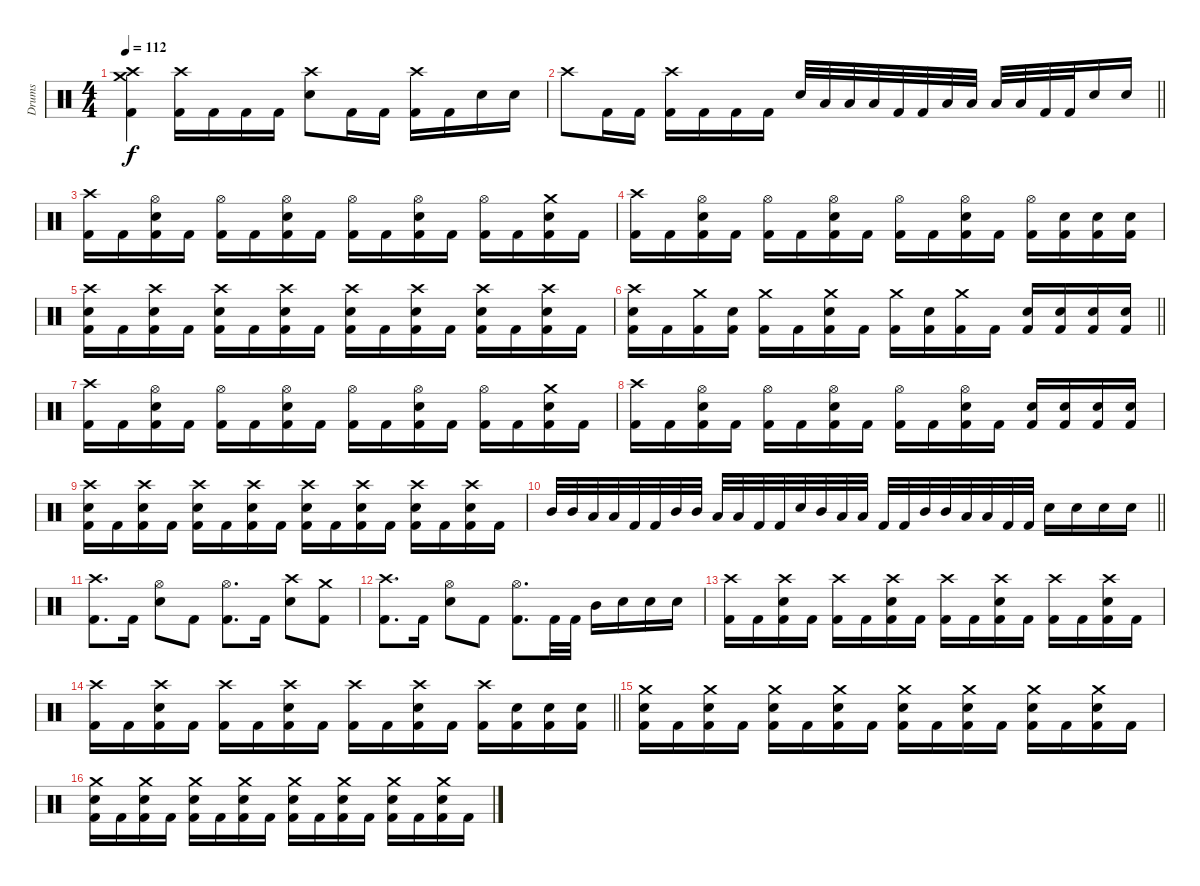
\track ("Drums" "Drums") {instrument percussion}
\staff {score}
\articulation defaults
\ts (4 4)
\tempo 112
\clef neutral
\ks c
("Crash high (hit)" "Crash medium (hit)" "Kick (hit) 2").4{dy f} ("Crash high (hit)" "Kick (hit) 2").16 "Kick (hit) 2".16 "Kick (hit) 2".16 "Kick (hit) 2".16 ("Crash high (hit)" "Electric Snare (hit)").8 "Kick (hit) 2".16 "Kick (hit) 2".16 ("Crash high (hit)" "Kick (hit) 2").16 "Kick (hit) 2".16 "Electric Snare (hit)".16 "Electric Snare (hit)".16 |
\barLineRight lightlight "Crash high (hit)".8 "Kick (hit) 2".16 "Kick (hit) 2".16
("Crash high (hit)" "Kick (hit) 2").16 "Kick (hit) 2".16 "Kick (hit) 2".16 "Kick (hit) 2".16 "Electric Snare (hit)".32 "Low Tom (hit)".32 "Low Tom (hit)".32 "Low Tom (hit)".32 "Kick (hit) 2".32 "Kick (hit) 2".32 "Low Tom (hit)".32 "Low Tom (hit)".32 "Low Tom (hit)".32 "Low Tom (hit)".32 "Kick (hit) 2".32 "Kick (hit) 2".32 "Electric Snare (hit)".16 "Electric Snare (hit)".16 |
("Crash high (hit)" "Kick (hit) 2").16 "Kick (hit) 2".16 ("Hi-Hat (open)" "Electric Snare (hit)" "Kick (hit) 2").16 "Kick (hit) 2".16 ("Hi-Hat (open)" "Kick (hit) 2").16 "Kick (hit) 2".16 ("Hi-Hat (open)" "Electric Snare (hit)" "Kick (hit) 2").16 "Kick (hit) 2".16 ("Hi-Hat (open)" "Kick (hit) 2").16 "Kick (hit) 2".16 ("Hi-Hat (open)" "Electric Snare (hit)" "Kick (hit) 2").16 "Kick (hit) 2".16 ("Hi-Hat (open)" "Kick (hit) 2").16 "Kick (hit) 2".16 ("Crash medium (hit)" "Electric Snare (hit)" "Kick (hit) 2").16 "Kick (hit) 2".16 |
("Crash high (hit)" "Kick (hit) 2").16 "Kick (hit) 2".16 ("Hi-Hat (open)" "Electric Snare (hit)" "Kick (hit) 2").16 "Kick (hit) 2".16 ("Hi-Hat (open)" "Kick (hit) 2").16 "Kick (hit) 2".16 ("Hi-Hat (open)" "Electric Snare (hit)" "Kick (hit) 2").16 "Kick (hit) 2".16 ("Hi-Hat (open)" "Kick (hit) 2").16 "Kick (hit) 2".16 ("Hi-Hat (open)" "Electric Snare (hit)" "Kick (hit) 2").16 "Kick (hit) 2".16 ("Hi-Hat (open)" "Kick (hit) 2").16 ("Electric Snare (hit)" "Kick (hit) 2").16 ("Electric Snare (hit)" "Kick (hit) 2").16 ("Electric Snare (hit)" "Kick (hit) 2").16 |
("Crash high (hit)" "Electric Snare (hit)" "Kick (hit) 2").16 "Kick (hit) 2".16 ("Crash high (hit)" "Electric Snare (hit)" "Kick (hit) 2").16 "Kick (hit) 2".16 ("Crash high (hit)" "Electric Snare (hit)" "Kick (hit) 2").16 "Kick (hit) 2".16 ("Crash high (hit)" "Electric Snare (hit)" "Kick (hit) 2").16 "Kick (hit) 2".16 ("Crash high (hit)" "Electric Snare (hit)" "Kick (hit) 2").16 "Kick (hit) 2".16 ("Crash high (hit)" "Electric Snare (hit)" "Kick (hit) 2").16 "Kick (hit) 2".16 ("Crash high (hit)" "Electric Snare (hit)" "Kick (hit) 2").16 "Kick (hit) 2".16 ("Crash high (hit)" "Electric Snare (hit)" "Kick (hit) 2").16 "Kick (hit) 2".16 |
\barLineRight lightlight
("Crash high (hit)" "Electric Snare (hit)" "Kick (hit) 2").16 "Kick (hit) 2".16 ("Crash medium (hit)" "Kick (hit) 2").16 ("Electric Snare (hit)" "Kick (hit) 2").16 ("Crash medium (hit)" "Kick (hit) 2").16 "Kick (hit) 2".16 ("Crash medium (hit)" "Electric Snare (hit)" "Kick (hit) 2").16 "Kick (hit) 2".16 ("Crash medium (hit)" "Kick (hit) 2").16 ("Electric Snare (hit)" "Kick (hit) 2").16 ("Crash medium (hit)" "Kick (hit) 2").16 "Kick (hit) 2".16 ("Electric Snare (hit)" "Kick (hit) 2").16 ("Electric Snare (hit)" "Kick (hit) 2").16 ("Electric Snare (hit)" "Kick (hit) 2").16 ("Electric Snare (hit)" "Kick (hit) 2").16 |
("Crash high (hit)" "Kick (hit) 2").16 "Kick (hit) 2".16 ("Hi-Hat (open)" "Electric Snare (hit)" "Kick (hit) 2").16 "Kick (hit) 2".16 ("Hi-Hat (open)" "Kick (hit) 2").16 "Kick (hit) 2".16 ("Hi-Hat (open)" "Electric Snare (hit)" "Kick (hit) 2").16 "Kick (hit) 2".16 ("Hi-Hat (open)" "Kick (hit) 2").16 "Kick (hit) 2".16 ("Hi-Hat (open)" "Electric Snare (hit)" "Kick (hit) 2").16 "Kick (hit) 2".16 ("Hi-Hat (open)" "Kick (hit) 2").16 "Kick (hit) 2".16 ("Crash medium (hit)" "Electric Snare (hit)" "Kick (hit) 2").16 "Kick (hit) 2".16 |
("Crash high (hit)" "Kick (hit) 2").16 "Kick (hit) 2".16 ("Hi-Hat (open)" "Electric Snare (hit)" "Kick (hit) 2").16 "Kick (hit) 2".16 ("Hi-Hat (open)" "Kick (hit) 2").16 "Kick (hit) 2".16 ("Hi-Hat (open)" "Electric Snare (hit)" "Kick (hit) 2").16 "Kick (hit) 2".16 ("Hi-Hat (open)" "Kick (hit) 2").16 "Kick (hit) 2".16 ("Hi-Hat (open)" "Electric Snare (hit)" "Kick (hit) 2").16 "Kick (hit) 2".16 ("Electric Snare (hit)" "Kick (hit) 2").16 ("Electric Snare (hit)" "Kick (hit) 2").16 ("Electric Snare (hit)" "Kick (hit) 2").16 ("Electric Snare (hit)" "Kick (hit) 2").16 |
("Crash high (hit)" "Electric Snare (hit)" "Kick (hit) 2").16 "Kick (hit) 2".16 ("Crash high (hit)" "Electric Snare (hit)" "Kick (hit) 2").16 "Kick (hit) 2".16 ("Crash high (hit)" "Electric Snare (hit)" "Kick (hit) 2").16 "Kick (hit) 2".16 ("Crash high (hit)" "Electric Snare (hit)" "Kick (hit) 2").16 "Kick (hit) 2".16 ("Crash high (hit)" "Electric Snare (hit)" "Kick (hit) 2").16 "Kick (hit) 2".16 ("Crash high (hit)" "Electric Snare (hit)" "Kick (hit) 2").16 "Kick (hit) 2".16 ("Crash high (hit)" "Electric Snare (hit)" "Kick (hit) 2").16 "Kick (hit) 2".16 ("Crash high (hit)" "Electric Snare (hit)" "Kick (hit) 2").16 "Kick (hit) 2".16 |
\barLineRight lightlight "Mid Tom (hit)".32 "Mid Tom (hit)".32 "Low Tom (hit)".32 "Low Tom (hit)".32 "Kick (hit) 2".32 "Kick (hit) 2".32 "Mid Tom (hit)".32 "Mid Tom (hit)".32 "Low Tom (hit)".32 "Low Tom (hit)".32 "Kick (hit) 2".32 "Kick (hit) 2".32 "Electric Snare (hit)".32 "Mid Tom (hit)".32 "Low Tom (hit)".32 "Low Tom (hit)".32 "Kick (hit) 2".32 "Kick (hit) 2".32 "Mid Tom (hit)".32 "Mid Tom (hit)".32 "Low Tom (hit)".32 "Low Tom (hit)".32 "Kick (hit) 2".32 "Kick (hit) 2".32 "Electric Snare (hit)".16 "Electric Snare (hit)".16 "Electric Snare (hit)".16 "Electric Snare (hit)".16
|
("Crash high (hit)" "Kick (hit) 2").8{d} "Kick (hit) 2".16 ("Hi-Hat (open)" "Electric Snare (hit)").8 "Kick (hit) 2".8 ("Hi-Hat (open)" "Kick (hit) 2").8{d} "Kick (hit) 2".16 ("Crash high (hit)" "Electric Snare (hit)").8 ("Crash medium (hit)" "Kick (hit) 2").8 |
("Crash high (hit)" "Kick (hit) 2").8{d} "Kick (hit) 2".16 ("Hi-Hat (open)" "Electric Snare (hit)").8 "Kick (hit) 2".8 ("Hi-Hat (open)" "Kick (hit) 2").8{d} "Kick (hit) 2".32 "Kick (hit) 2".32 "Mid Tom (hit)".16 "Electric Snare (hit)".16 "Electric Snare (hit)".16 "Electric Snare (hit)".16 |
("Crash high (hit)" "Kick (hit) 2").16 "Kick (hit) 2".16 ("Crash high (hit)" "Electric Snare (hit)" "Kick (hit) 2").16 "Kick (hit) 2".16 ("Crash high (hit)" "Kick (hit) 2").16 "Kick (hit) 2".16 ("Crash high (hit)" "Electric Snare (hit)" "Kick (hit) 2").16 "Kick (hit) 2".16 ("Crash high (hit)" "Kick (hit) 2").16 "Kick (hit) 2".16 ("Crash high (hit)" "Electric Snare (hit)" "Kick (hit) 2").16 "Kick (hit) 2".16 ("Crash high (hit)" "Kick (hit) 2").16 "Kick (hit) 2".16 ("Crash high (hit)" "Electric Snare (hit)" "Kick (hit) 2").16 "Kick (hit) 2".16 |
\barLineRight lightlight
("Crash high (hit)" "Kick (hit) 2").16 "Kick (hit) 2".16 ("Crash high (hit)" "Electric Snare (hit)" "Kick (hit) 2").16 "Kick (hit) 2".16 ("Crash high (hit)" "Kick (hit) 2").16 "Kick (hit) 2".16 ("Crash high (hit)" "Electric Snare (hit)" "Kick (hit) 2").16 "Kick (hit) 2".16 ("Crash high (hit)" "Kick (hit) 2").16 "Kick (hit) 2".16 ("Crash high (hit)" "Electric Snare (hit)" "Kick (hit) 2").16 "Kick (hit) 2".16 ("Crash high (hit)" "Kick (hit) 2").16 ("Electric Snare (hit)" "Kick (hit) 2").16 ("Electric Snare (hit)" "Kick (hit) 2").16 ("Electric Snare (hit)" "Kick (hit) 2").16 |
("Crash medium (hit)" "Electric Snare (hit)" "Kick (hit) 2").16 "Kick (hit) 2".16 ("Crash medium (hit)" "Electric Snare (hit)" "Kick (hit) 2").16 "Kick (hit) 2".16 ("Crash medium (hit)" "Electric Snare (hit)" "Kick (hit) 2").16 "Kick (hit) 2".16 ("Crash medium (hit)" "Electric Snare (hit)" "Kick (hit) 2").16 "Kick (hit) 2".16 ("Crash medium (hit)" "Electric Snare (hit)" "Kick (hit) 2").16 "Kick (hit) 2".16 ("Crash medium (hit)" "Electric Snare (hit)" "Kick (hit) 2").16 "Kick (hit) 2".16 ("Crash medium (hit)" "Electric Snare (hit)" "Kick (hit) 2").16 "Kick (hit) 2".16 ("Crash medium (hit)" "Electric Snare (hit)" "Kick (hit) 2").16 "Kick (hit) 2".16 |
("Crash medium (hit)" "Electric Snare (hit)" "Kick (hit) 2").16 "Kick (hit) 2".16 ("Crash medium (hit)" "Electric Snare (hit)" "Kick (hit) 2").16 "Kick (hit) 2".16 ("Crash medium (hit)" "Electric Snare (hit)" "Kick (hit) 2").16 "Kick (hit) 2".16 ("Crash medium (hit)" "Electric Snare (hit)" "Kick (hit) 2").16 "Kick (hit) 2".16 ("Crash medium (hit)" "Electric Snare (hit)" "Kick (hit) 2").16 "Kick (hit) 2".16 ("Crash medium (hit)" "Electric Snare (hit)" "Kick (hit) 2").16 "Kick (hit) 2".16 ("Crash medium (hit)" "Electric Snare (hit)" "Kick (hit) 2").16 "Kick (hit) 2".16 ("Crash medium (hit)" "Electric Snare (hit)" "Kick (hit) 2").16 "Kick (hit) 2".16
